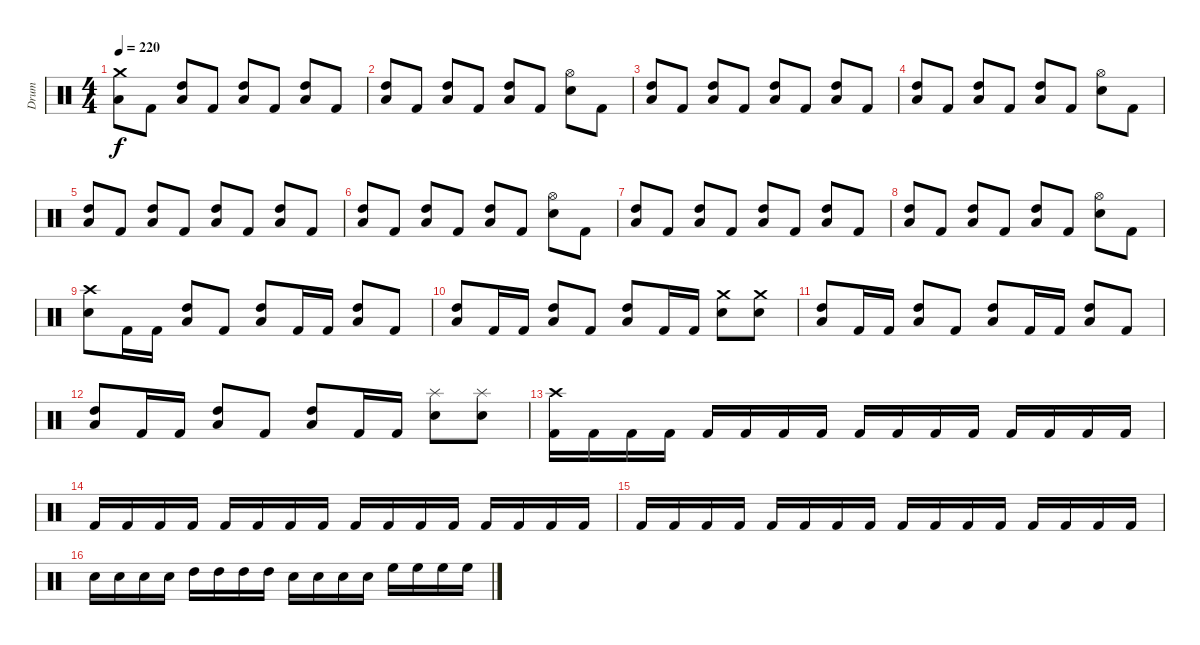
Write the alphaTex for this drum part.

\track ("Drum" "Drum") {instrument percussion}
\staff {score}
\articulation defaults
\ts (4 4)
\tempo 220
\clef neutral
\ks c
("Crash medium (hit)" "Low Floor Tom (hit)").8{dy f} "Kick (hit) 2".8 ("High Tom (hit)" "Low Floor Tom (hit)").8 "Kick (hit) 2".8 ("High Tom (hit)" "Low Floor Tom (hit)").8 "Kick (hit) 2".8 ("High Tom (hit)" "Low Floor Tom (hit)").8 "Kick (hit) 2".8 |
("High Tom (hit)" "Low Floor Tom (hit)").8 "Kick (hit) 2".8 ("High Tom (hit)" "Low Floor Tom (hit)").8 "Kick (hit) 2".8 ("High Tom (hit)" "Low Floor Tom (hit)").8 "Kick (hit) 2".8 ("Hi-Hat (open)" "Electric Snare (hit)").8 "Kick (hit) 2".8 |
("High Tom (hit)" "Low Floor Tom (hit)").8 "Kick (hit) 2".8 ("High Tom (hit)" "Low Floor Tom (hit)").8 "Kick (hit) 2".8 ("High Tom (hit)" "Low Floor Tom (hit)").8 "Kick (hit) 2".8 ("High Tom (hit)" "Low Floor Tom (hit)").8 "Kick (hit) 2".8 |
("High Tom (hit)" "Low Floor Tom (hit)").8 "Kick (hit) 2".8 ("High Tom (hit)" "Low Floor Tom (hit)").8 "Kick (hit) 2".8 ("High Tom (hit)" "Low Floor Tom (hit)").8 "Kick (hit) 2".8 ("Hi-Hat (open)" "Electric Snare (hit)").8 "Kick (hit) 2".8 |
("High Tom (hit)" "Low Floor Tom (hit)").8 "Kick (hit) 2".8 ("High Tom (hit)" "Low Floor Tom (hit)").8 "Kick (hit) 2".8 ("High Tom (hit)" "Low Floor Tom (hit)").8 "Kick (hit) 2".8 ("High Tom (hit)" "Low Floor Tom (hit)").8 "Kick (hit) 2".8 |
("High Tom (hit)" "Low Floor Tom (hit)").8 "Kick (hit) 2".8 ("High Tom (hit)" "Low Floor Tom (hit)").8 "Kick (hit) 2".8 ("High Tom (hit)" "Low Floor Tom (hit)").8 "Kick (hit) 2".8 ("Hi-Hat (open)" "Electric Snare (hit)").8 "Kick (hit) 2".8 |
("High Tom (hit)" "Low Floor Tom (hit)").8 "Kick (hit) 2".8 ("High Tom (hit)" "Low Floor Tom (hit)").8 "Kick (hit) 2".8 ("High Tom (hit)" "Low Floor Tom (hit)").8 "Kick (hit) 2".8 ("High Tom (hit)" "Low Floor Tom (hit)").8 "Kick (hit) 2".8 |
("High Tom (hit)" "Low Floor Tom (hit)").8 "Kick (hit) 2".8 ("High Tom (hit)" "Low Floor Tom (hit)").8 "Kick (hit) 2".8 ("High Tom (hit)" "Low Floor Tom (hit)").8 "Kick (hit) 2".8 ("Hi-Hat (open)" "Electric Snare (hit)").8 "Kick (hit) 2".8 |
("Crash high (hit)" "Electric Snare (hit)").8 "Kick (hit) 2".16 "Kick (hit) 2".16 ("High Tom (hit)" "Low Floor Tom (hit)").8 "Kick (hit) 2".8 ("High Tom (hit)" "Low Floor Tom (hit)").8 "Kick (hit) 2".16 "Kick (hit) 2".16 ("High Tom (hit)" "Low Floor Tom (hit)").8 "Kick (hit) 2".8 |
("High Tom (hit)" "Low Floor Tom (hit)").8 "Kick (hit) 2".16 "Kick (hit) 2".16 ("High Tom (hit)" "Low Floor Tom (hit)").8 "Kick (hit) 2".8 ("High Tom (hit)" "Low Floor Tom (hit)").8 "Kick (hit) 2".16 "Kick (hit) 2".16 ("Crash medium (hit)" "Electric Snare (hit)").8 ("Crash medium (hit)" "Electric Snare (hit)").8 |
("High Tom (hit)" "Low Floor Tom (hit)").8 "Kick (hit) 2".16 "Kick (hit) 2".16 ("High Tom (hit)" "Low Floor Tom (hit)").8 "Kick (hit) 2".8 ("High Tom (hit)" "Low Floor Tom (hit)").8 "Kick (hit) 2".16 "Kick (hit) 2".16 ("High Tom (hit)" "Low Floor Tom (hit)").8 "Kick (hit) 2".8 |
("High Tom (hit)" "Low Floor Tom (hit)").8 "Kick (hit) 2".16 "Kick (hit) 2".16 ("High Tom (hit)" "Low Floor Tom (hit)").8 "Kick (hit) 2".8 ("High Tom (hit)" "Low Floor Tom (hit)").8 "Kick (hit) 2".16 "Kick (hit) 2".16 ("Splash (hit)" "Electric Snare (hit)").8 ("Splash (hit)" "Electric Snare (hit)").8 |
("Crash high (hit)" "Kick (hit) 2").16 "Kick (hit) 2".16 "Kick (hit) 2".16 "Kick (hit) 2".16 "Kick (hit) 2".16 "Kick (hit) 2".16 "Kick (hit) 2".16 "Kick (hit) 2".16 "Kick (hit) 2".16 "Kick (hit) 2".16 "Kick (hit) 2".16 "Kick (hit) 2".16 "Kick (hit) 2".16 "Kick (hit) 2".16 "Kick (hit) 2".16 "Kick (hit) 2".16 |
"Kick (hit) 2".16 "Kick (hit) 2".16 "Kick (hit) 2".16 "Kick (hit) 2".16 "Kick (hit) 2".16 "Kick (hit) 2".16 "Kick (hit) 2".16 "Kick (hit) 2".16 "Kick (hit) 2".16 "Kick (hit) 2".16 "Kick (hit) 2".16 "Kick (hit) 2".16 "Kick (hit) 2".16 "Kick (hit) 2".16 "Kick (hit) 2".16 "Kick (hit) 2".16 |
"Kick (hit) 2".16 "Kick (hit) 2".16 "Kick (hit) 2".16 "Kick (hit) 2".16 "Kick (hit) 2".16 "Kick (hit) 2".16 "Kick (hit) 2".16 "Kick (hit) 2".16 "Kick (hit) 2".16 "Kick (hit) 2".16 "Kick (hit) 2".16 "Kick (hit) 2".16 "Kick (hit) 2".16 "Kick (hit) 2".16 "Kick (hit) 2".16 "Kick (hit) 2".16 |
"Electric Snare (hit)".16 "Electric Snare (hit)".16 "Electric Snare (hit)".16 "Electric Snare (hit)".16 "High Tom (hit)".16 "High Tom (hit)".16 "High Tom (hit)".16 "High Tom (hit)".16 "Electric Snare (hit)".16 "Electric Snare (hit)".16 "Electric Snare (hit)".16 "Electric Snare (hit)".16 "High Floor Tom (hit)".16 "High Floor Tom (hit)".16 "High Floor Tom (hit)".16 "High Floor Tom (hit)".16
